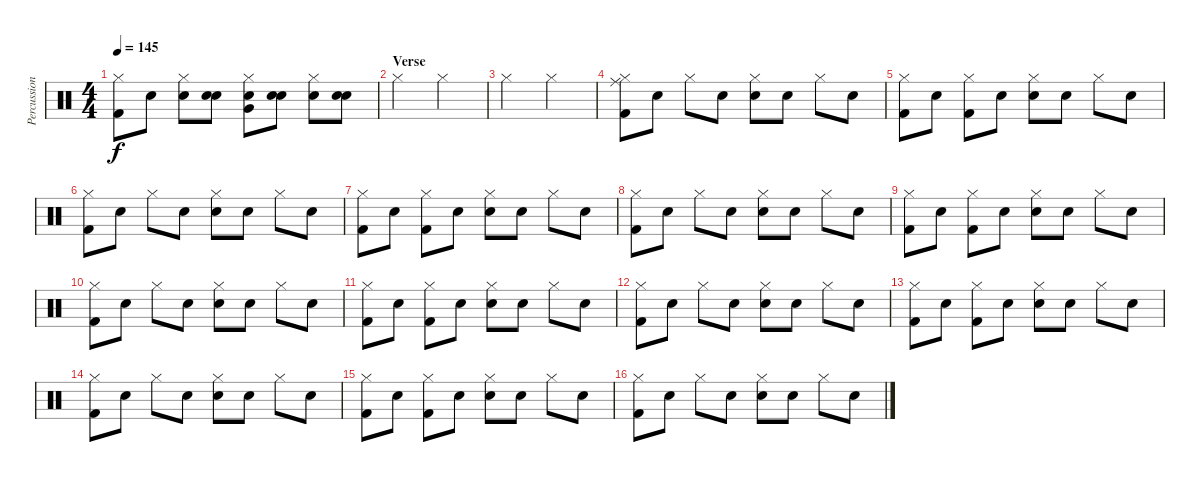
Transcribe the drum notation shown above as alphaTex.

\track ("Percussion" "Percussion") {instrument percussion}
\staff {score}
\articulation defaults
\ts (4 4)
\tempo 145
\clef neutral
\ks c
("Hi-Hat (closed)" "Kick (hit) 2").8{dy f} "Snare (hit)"{x}.8 ("Hi-Hat (closed)" "Electric Snare (hit)"{x}).8 ("Snare (hit)"{x} "Electric Snare (hit)").8 ("Hi-Hat (closed)" "Very Low Tom (hit)" "Electric Snare (hit)").8 ("Snare (hit)"{x} "Electric Snare (hit)"{x}).8 ("Hi-Hat (closed)" "Electric Snare (hit)").8 ("Snare (hit)"{x} "Electric Snare (hit)").8 |
\section ("" "Verse")
"Hi-Hat (closed)".2 "Hi-Hat (closed)".2 |
"Hi-Hat (closed)".2 "Hi-Hat (closed)".2 |
("Hi-Hat (closed)" "Ride (middle)" "Kick (hit) 2").8 "Snare (hit)"{x}.8 "Hi-Hat (closed)".8 "Snare (hit)"{x}.8 ("Hi-Hat (closed)" "Electric Snare (hit)").8 "Snare (hit)"{x}.8 "Hi-Hat (closed)".8 "Snare (hit)"{x}.8 |
("Hi-Hat (closed)" "Kick (hit) 2").8 "Snare (hit)"{x}.8 ("Hi-Hat (closed)" "Kick (hit) 2").8 "Snare (hit)"{x}.8 ("Hi-Hat (closed)" "Electric Snare (hit)").8 "Snare (hit)"{x}.8 "Hi-Hat (closed)".8 "Snare (hit)"{x}.8 |
("Hi-Hat (closed)" "Kick (hit) 2").8 "Snare (hit)"{x}.8 "Hi-Hat (closed)".8 "Snare (hit)"{x}.8 ("Hi-Hat (closed)" "Electric Snare (hit)").8 "Snare (hit)"{x}.8 "Hi-Hat (closed)".8 "Snare (hit)"{x}.8 |
("Hi-Hat (closed)" "Kick (hit) 2").8 "Snare (hit)"{x}.8 ("Hi-Hat (closed)" "Kick (hit) 2").8 "Snare (hit)"{x}.8 ("Hi-Hat (closed)" "Electric Snare (hit)").8 "Snare (hit)"{x}.8 "Hi-Hat (closed)".8 "Snare (hit)"{x}.8 |
("Hi-Hat (closed)" "Kick (hit) 2").8 "Snare (hit)"{x}.8 "Hi-Hat (closed)".8 "Snare (hit)"{x}.8 ("Hi-Hat (closed)" "Electric Snare (hit)").8 "Snare (hit)"{x}.8 "Hi-Hat (closed)".8 "Snare (hit)"{x}.8 |
("Hi-Hat (closed)" "Kick (hit) 2").8 "Snare (hit)"{x}.8 ("Hi-Hat (closed)" "Kick (hit) 2").8 "Snare (hit)"{x}.8 ("Hi-Hat (closed)" "Electric Snare (hit)").8 "Snare (hit)"{x}.8 "Hi-Hat (closed)".8 "Snare (hit)"{x}.8 |
("Hi-Hat (closed)" "Kick (hit) 2").8 "Snare (hit)"{x}.8 "Hi-Hat (closed)".8 "Snare (hit)"{x}.8 ("Hi-Hat (closed)" "Electric Snare (hit)").8 "Snare (hit)"{x}.8 "Hi-Hat (closed)".8 "Snare (hit)"{x}.8 |
("Hi-Hat (closed)" "Kick (hit) 2").8 "Snare (hit)"{x}.8 ("Hi-Hat (closed)" "Kick (hit) 2").8 "Snare (hit)"{x}.8 ("Hi-Hat (closed)" "Electric Snare (hit)").8 "Snare (hit)"{x}.8 "Hi-Hat (closed)".8 "Snare (hit)"{x}.8 |
("Hi-Hat (closed)" "Kick (hit) 2").8 "Snare (hit)"{x}.8 "Hi-Hat (closed)".8 "Snare (hit)"{x}.8 ("Hi-Hat (closed)" "Electric Snare (hit)").8 "Snare (hit)"{x}.8 "Hi-Hat (closed)".8 "Snare (hit)"{x}.8 |
("Hi-Hat (closed)" "Kick (hit) 2").8 "Snare (hit)"{x}.8 ("Hi-Hat (closed)" "Kick (hit) 2").8 "Snare (hit)"{x}.8 ("Hi-Hat (closed)" "Electric Snare (hit)").8 "Snare (hit)"{x}.8 "Hi-Hat (closed)".8 "Snare (hit)"{x}.8 |
("Hi-Hat (closed)" "Kick (hit) 2").8 "Snare (hit)"{x}.8 "Hi-Hat (closed)".8 "Snare (hit)"{x}.8 ("Hi-Hat (closed)" "Electric Snare (hit)").8 "Snare (hit)"{x}.8 "Hi-Hat (closed)".8 "Snare (hit)"{x}.8 |
("Hi-Hat (closed)" "Kick (hit) 2").8 "Snare (hit)"{x}.8 ("Hi-Hat (closed)" "Kick (hit) 2").8 "Snare (hit)"{x}.8 ("Hi-Hat (closed)" "Electric Snare (hit)").8 "Snare (hit)"{x}.8 "Hi-Hat (closed)".8 "Snare (hit)"{x}.8 |
("Hi-Hat (closed)" "Kick (hit) 2").8 "Snare (hit)"{x}.8 "Hi-Hat (closed)".8 "Snare (hit)"{x}.8 ("Hi-Hat (closed)" "Electric Snare (hit)").8 "Snare (hit)"{x}.8 "Hi-Hat (closed)".8 "Snare (hit)"{x}.8
